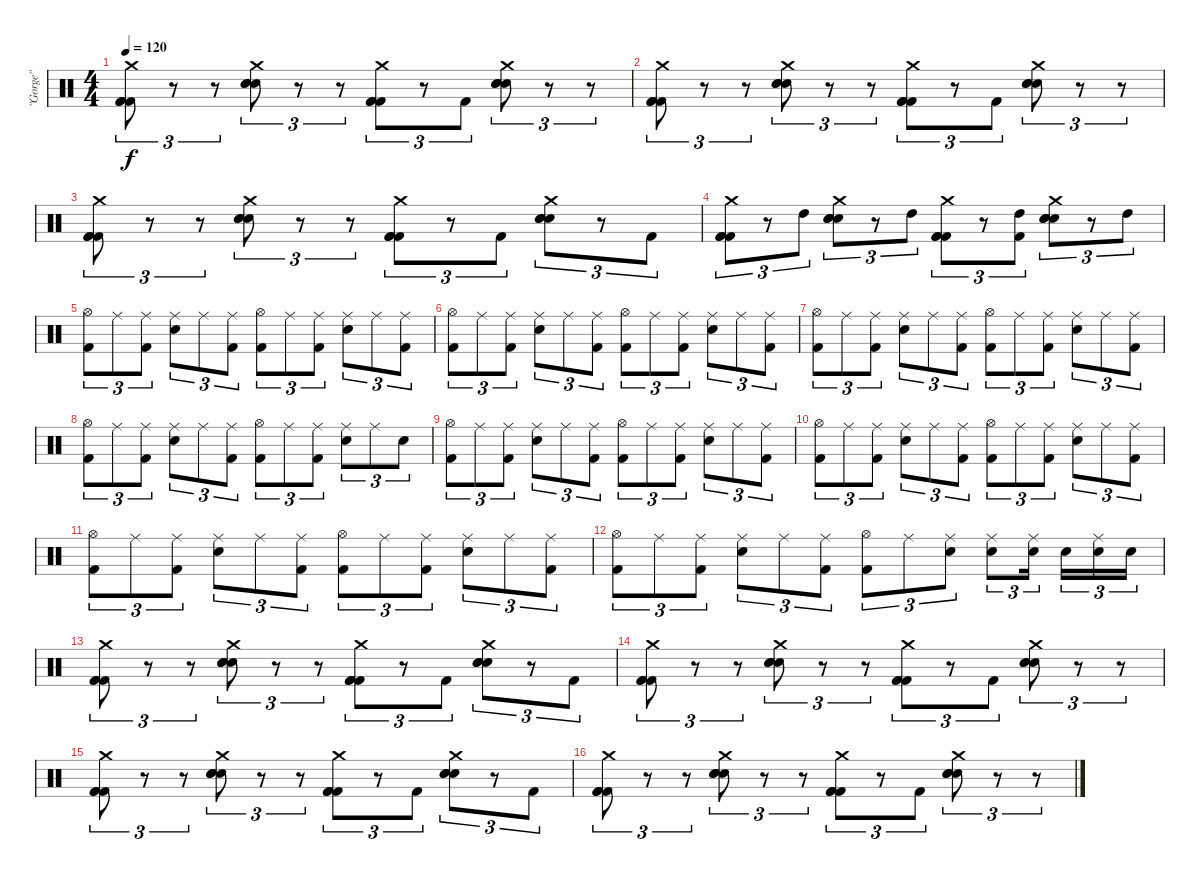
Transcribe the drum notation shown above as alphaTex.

\track ("\"Gorge\"" "\"Gorge\"") {instrument percussion}
\staff {score}
\articulation defaults
\ts (4 4)
\tempo 120
\clef neutral
\ks c
("Crash medium (hit)" "Kick (hit) 2" "Kick (hit) 2" "Kick (hit) 2").8{tu (3 2) dy f} r.8{tu (3 2)} r.8{tu (3 2)} ("Crash medium (hit)" "Electric Snare (hit)" "Electric Snare (hit)" "Electric Snare (hit)").8{tu (3 2)} r.8{tu (3 2)} r.8{tu (3 2)} ("Crash medium (hit)" "Kick (hit) 2" "Kick (hit) 2" "Kick (hit) 2").8{tu (3 2)} r.8{tu (3 2)} "Kick (hit) 2".8{tu (3 2)} ("Crash medium (hit)" "Electric Snare (hit)" "Electric Snare (hit)" "Electric Snare (hit)").8{tu (3 2)} r.8{tu (3 2)} r.8{tu (3 2)} |
("Crash medium (hit)" "Kick (hit) 2" "Kick (hit) 2" "Kick (hit) 2").8{tu (3 2)} r.8{tu (3 2)} r.8{tu (3 2)} ("Crash medium (hit)" "Electric Snare (hit)" "Electric Snare (hit)" "Electric Snare (hit)").8{tu (3 2)} r.8{tu (3 2)} r.8{tu (3 2)} ("Crash medium (hit)" "Kick (hit) 2" "Kick (hit) 2" "Kick (hit) 2").8{tu (3 2)} r.8{tu (3 2)} "Kick (hit) 2".8{tu (3 2)} ("Crash medium (hit)" "Electric Snare (hit)" "Electric Snare (hit)" "Electric Snare (hit)").8{tu (3 2)} r.8{tu (3 2)} r.8{tu (3 2)} |
("Crash medium (hit)" "Kick (hit) 2" "Kick (hit) 2" "Kick (hit) 2").8{tu (3 2)} r.8{tu (3 2)} r.8{tu (3 2)} ("Crash medium (hit)" "Electric Snare (hit)" "Electric Snare (hit)" "Electric Snare (hit)").8{tu (3 2)} r.8{tu (3 2)} r.8{tu (3 2)} ("Crash medium (hit)" "Kick (hit) 2" "Kick (hit) 2" "Kick (hit) 2").8{tu (3 2)} r.8{tu (3 2)} "Kick (hit) 2".8{tu (3 2)} ("Crash medium (hit)" "Electric Snare (hit)" "Electric Snare (hit)" "Electric Snare (hit)").8{tu (3 2)} r.8{tu (3 2)} "Kick (hit) 2".8{tu (3 2)} |
("Crash medium (hit)" "Kick (hit) 2" "Kick (hit) 2" "Kick (hit) 2").8{tu (3 2)} r.8{tu (3 2)} "High Tom (hit)".8{tu (3 2)} ("Crash medium (hit)" "Electric Snare (hit)" "Electric Snare (hit)" "Electric Snare (hit)").8{tu (3 2)} r.8{tu (3 2)} "High Tom (hit)".8{tu (3 2)} ("Crash medium (hit)" "Kick (hit) 2" "Kick (hit) 2" "Kick (hit) 2").8{tu (3 2)} r.8{tu (3 2)} ("High Tom (hit)" "Kick (hit) 2").8{tu (3 2)} ("Crash medium (hit)" "Electric Snare (hit)" "Electric Snare (hit)" "Electric Snare (hit)").8{tu (3 2)} r.8{tu (3 2)} "High Tom (hit)".8{tu (3 2)} |
("Hi-Hat (open)" "Kick (hit) 2").8{tu (3 2)} "Ride (middle)".8{tu (3 2)} ("Ride (middle)" "Kick (hit) 2").8{tu (3 2)} ("Ride (middle)" "Electric Snare (hit)").8{tu (3 2)} "Ride (middle)".8{tu (3 2)} ("Ride (middle)" "Kick (hit) 2").8{tu (3 2)} ("Hi-Hat (open)" "Kick (hit) 2").8{tu (3 2)} "Ride (middle)".8{tu (3 2)} ("Ride (middle)" "Kick (hit) 2").8{tu (3 2)} ("Ride (middle)" "Electric Snare (hit)").8{tu (3 2)} "Ride (middle)".8{tu (3 2)} ("Ride (middle)" "Kick (hit) 2").8{tu (3 2)} |
("Hi-Hat (open)" "Kick (hit) 2").8{tu (3 2)} "Ride (middle)".8{tu (3 2)} ("Ride (middle)" "Kick (hit) 2").8{tu (3 2)} ("Ride (middle)" "Electric Snare (hit)").8{tu (3 2)} "Ride (middle)".8{tu (3 2)} ("Ride (middle)" "Kick (hit) 2").8{tu (3 2)} ("Hi-Hat (open)" "Kick (hit) 2").8{tu (3 2)} "Ride (middle)".8{tu (3 2)} ("Ride (middle)" "Kick (hit) 2").8{tu (3 2)} ("Ride (middle)" "Electric Snare (hit)").8{tu (3 2)} "Ride (middle)".8{tu (3 2)} ("Ride (middle)" "Kick (hit) 2").8{tu (3 2)} |
("Hi-Hat (open)" "Kick (hit) 2").8{tu (3 2)} "Ride (middle)".8{tu (3 2)} ("Ride (middle)" "Kick (hit) 2").8{tu (3 2)} ("Ride (middle)" "Electric Snare (hit)").8{tu (3 2)} "Ride (middle)".8{tu (3 2)} ("Ride (middle)" "Kick (hit) 2").8{tu (3 2)} ("Hi-Hat (open)" "Kick (hit) 2").8{tu (3 2)} "Ride (middle)".8{tu (3 2)} ("Ride (middle)" "Kick (hit) 2").8{tu (3 2)} ("Ride (middle)" "Electric Snare (hit)").8{tu (3 2)} "Ride (middle)".8{tu (3 2)} ("Ride (middle)" "Kick (hit) 2").8{tu (3 2)} |
("Hi-Hat (open)" "Kick (hit) 2").8{tu (3 2)} "Ride (middle)".8{tu (3 2)} ("Ride (middle)" "Kick (hit) 2").8{tu (3 2)} ("Ride (middle)" "Electric Snare (hit)").8{tu (3 2)} "Ride (middle)".8{tu (3 2)} ("Ride (middle)" "Kick (hit) 2").8{tu (3 2)} ("Hi-Hat (open)" "Kick (hit) 2").8{tu (3 2)} "Ride (middle)".8{tu (3 2)} ("Ride (middle)" "Kick (hit) 2").8{tu (3 2)} ("Ride (middle)" "Electric Snare (hit)").8{tu (3 2)} "Ride (middle)".8{tu (3 2)} "Electric Snare (hit)".8{tu (3 2)} |
("Hi-Hat (open)" "Kick (hit) 2").8{tu (3 2)} "Ride (middle)".8{tu (3 2)} ("Ride (middle)" "Kick (hit) 2").8{tu (3 2)} ("Ride (middle)" "Electric Snare (hit)").8{tu (3 2)} "Ride (middle)".8{tu (3 2)} ("Ride (middle)" "Kick (hit) 2").8{tu (3 2)} ("Hi-Hat (open)" "Kick (hit) 2").8{tu (3 2)} "Ride (middle)".8{tu (3 2)} ("Ride (middle)" "Kick (hit) 2").8{tu (3 2)} ("Ride (middle)" "Electric Snare (hit)").8{tu (3 2)} "Ride (middle)".8{tu (3 2)} ("Ride (middle)" "Kick (hit) 2").8{tu (3 2)} |
("Hi-Hat (open)" "Kick (hit) 2").8{tu (3 2)} "Ride (middle)".8{tu (3 2)} ("Ride (middle)" "Kick (hit) 2").8{tu (3 2)} ("Ride (middle)" "Electric Snare (hit)").8{tu (3 2)} "Ride (middle)".8{tu (3 2)} ("Ride (middle)" "Kick (hit) 2").8{tu (3 2)} ("Hi-Hat (open)" "Kick (hit) 2").8{tu (3 2)} "Ride (middle)".8{tu (3 2)} ("Ride (middle)" "Kick (hit) 2").8{tu (3 2)} ("Ride (middle)" "Electric Snare (hit)").8{tu (3 2)} "Ride (middle)".8{tu (3 2)} ("Ride (middle)" "Kick (hit) 2").8{tu (3 2)} |
("Hi-Hat (open)" "Kick (hit) 2").8{tu (3 2)} "Ride (middle)".8{tu (3 2)} ("Ride (middle)" "Kick (hit) 2").8{tu (3 2)} ("Ride (middle)" "Electric Snare (hit)").8{tu (3 2)} "Ride (middle)".8{tu (3 2)} ("Ride (middle)" "Kick (hit) 2").8{tu (3 2)} ("Hi-Hat (open)" "Kick (hit) 2").8{tu (3 2)} "Ride (middle)".8{tu (3 2)} ("Ride (middle)" "Kick (hit) 2").8{tu (3 2)} ("Ride (middle)" "Electric Snare (hit)").8{tu (3 2)} "Ride (middle)".8{tu (3 2)} ("Ride (middle)" "Kick (hit) 2").8{tu (3 2)} |
("Hi-Hat (open)" "Kick (hit) 2").8{tu (3 2)} "Ride (middle)".8{tu (3 2)} ("Ride (middle)" "Kick (hit) 2").8{tu (3 2)} ("Ride (middle)" "Electric Snare (hit)").8{tu (3 2)} "Ride (middle)".8{tu (3 2)} ("Ride (middle)" "Kick (hit) 2").8{tu (3 2)} ("Hi-Hat (open)" "Kick (hit) 2").8{tu (3 2)} "Ride (middle)".8{tu (3 2)} ("Ride (middle)" "Electric Snare (hit)").8{tu (3 2)} ("Ride (middle)" "Electric Snare (hit)").8{tu (3 2)} ("Ride (middle)" "Electric Snare (hit)").16{tu (3 2)} "Electric Snare (hit)".16{tu (3 2)} ("Ride (middle)" "Electric Snare (hit)").16{tu (3 2)} "Electric Snare (hit)".16{tu (3 2)} |
("Crash medium (hit)" "Kick (hit) 2" "Kick (hit) 2" "Kick (hit) 2").8{tu (3 2)} r.8{tu (3 2)} r.8{tu (3 2)} ("Crash medium (hit)" "Electric Snare (hit)" "Electric Snare (hit)" "Electric Snare (hit)").8{tu (3 2)} r.8{tu (3 2)} r.8{tu (3 2)} ("Crash medium (hit)" "Kick (hit) 2" "Kick (hit) 2" "Kick (hit) 2").8{tu (3 2)} r.8{tu (3 2)} "Kick (hit) 2".8{tu (3 2)} ("Crash medium (hit)" "Electric Snare (hit)" "Electric Snare (hit)" "Electric Snare (hit)").8{tu (3 2)} r.8{tu (3 2)} "Kick (hit) 2".8{tu (3 2)} |
("Crash medium (hit)" "Kick (hit) 2" "Kick (hit) 2" "Kick (hit) 2").8{tu (3 2)} r.8{tu (3 2)} r.8{tu (3 2)} ("Crash medium (hit)" "Electric Snare (hit)" "Electric Snare (hit)" "Electric Snare (hit)").8{tu (3 2)} r.8{tu (3 2)} r.8{tu (3 2)} ("Crash medium (hit)" "Kick (hit) 2" "Kick (hit) 2" "Kick (hit) 2").8{tu (3 2)} r.8{tu (3 2)} "Kick (hit) 2".8{tu (3 2)} ("Crash medium (hit)" "Electric Snare (hit)" "Electric Snare (hit)" "Electric Snare (hit)").8{tu (3 2)} r.8{tu (3 2)} r.8{tu (3 2)} |
("Crash medium (hit)" "Kick (hit) 2" "Kick (hit) 2" "Kick (hit) 2").8{tu (3 2)} r.8{tu (3 2)} r.8{tu (3 2)} ("Crash medium (hit)" "Electric Snare (hit)" "Electric Snare (hit)" "Electric Snare (hit)").8{tu (3 2)} r.8{tu (3 2)} r.8{tu (3 2)} ("Crash medium (hit)" "Kick (hit) 2" "Kick (hit) 2" "Kick (hit) 2").8{tu (3 2)} r.8{tu (3 2)} "Kick (hit) 2".8{tu (3 2)} ("Crash medium (hit)" "Electric Snare (hit)" "Electric Snare (hit)" "Electric Snare (hit)").8{tu (3 2)} r.8{tu (3 2)} "Kick (hit) 2".8{tu (3 2)} |
("Crash medium (hit)" "Kick (hit) 2" "Kick (hit) 2" "Kick (hit) 2").8{tu (3 2)} r.8{tu (3 2)} r.8{tu (3 2)} ("Crash medium (hit)" "Electric Snare (hit)" "Electric Snare (hit)" "Electric Snare (hit)").8{tu (3 2)} r.8{tu (3 2)} r.8{tu (3 2)} ("Crash medium (hit)" "Kick (hit) 2" "Kick (hit) 2" "Kick (hit) 2").8{tu (3 2)} r.8{tu (3 2)} "Kick (hit) 2".8{tu (3 2)} ("Crash medium (hit)" "Electric Snare (hit)" "Electric Snare (hit)" "Electric Snare (hit)").8{tu (3 2)} r.8{tu (3 2)} r.8{tu (3 2)}
